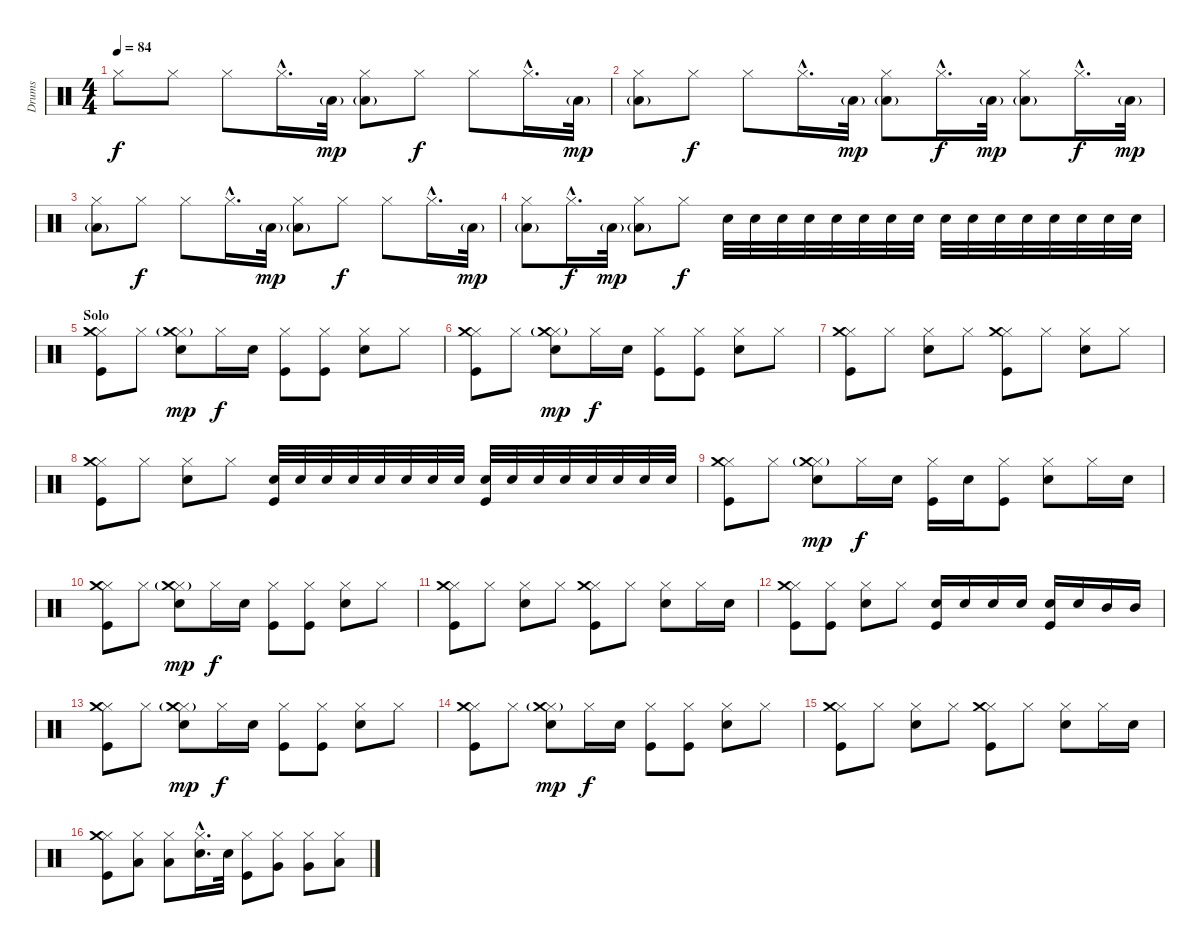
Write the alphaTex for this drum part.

\track ("Drums" "Drums") {instrument percussion}
\staff {score}
\articulation defaults
\ts (4 4)
\tempo 84
\clef neutral
\ks c "Hi-Hat (closed)".8{dy f} "Hi-Hat (closed)".8 "Hi-Hat (closed)".8 "Hi-Hat (closed)"{hac}.16{d} "Low Floor Tom (hit)"{g}.32{dy mp}
("Hi-Hat (closed)" "Low Floor Tom (hit)"{g}).8 "Hi-Hat (closed)".8{dy f} "Hi-Hat (closed)".8 "Hi-Hat (closed)"{hac}.16{d} "Low Floor Tom (hit)"{g}.32{dy mp} |
("Hi-Hat (closed)" "Low Floor Tom (hit)"{g}).8 "Hi-Hat (closed)".8{dy f} "Hi-Hat (closed)".8 "Hi-Hat (closed)"{hac}.16{d} "Low Floor Tom (hit)"{g}.32{dy mp} ("Hi-Hat (closed)" "Low Floor Tom (hit)"{g}).8 "Hi-Hat (closed)"{hac}.16{d dy f} "Low Floor Tom (hit)"{g}.32{dy mp} ("Hi-Hat (closed)" "Low Floor Tom (hit)"{g}).8 "Hi-Hat (closed)"{hac}.16{d dy f} "Low Floor Tom (hit)"{g}.32{dy mp} |
("Hi-Hat (closed)" "Low Floor Tom (hit)"{g}).8 "Hi-Hat (closed)".8{dy f} "Hi-Hat (closed)".8 "Hi-Hat (closed)"{hac}.16{d} "Low Floor Tom (hit)"{g}.32{dy mp} ("Hi-Hat (closed)" "Low Floor Tom (hit)"{g}).8 "Hi-Hat (closed)".8{dy f} "Hi-Hat (closed)".8 "Hi-Hat (closed)"{hac}.16{d} "Low Floor Tom (hit)"{g}.32{dy mp} |
("Hi-Hat (closed)" "Low Floor Tom (hit)"{g}).8 "Hi-Hat (closed)"{hac}.16{d dy f} "Low Floor Tom (hit)"{g}.32{dy mp} ("Hi-Hat (closed)" "Low Floor Tom (hit)"{g}).8 "Hi-Hat (closed)".8{dy f} "Snare (hit) 2".32 "Snare (hit) 2".32 "Snare (hit) 2".32 "Snare (hit) 2".32 "Snare (hit) 2".32 "Snare (hit) 2".32 "Snare (hit) 2".32 "Snare (hit) 2".32 "Snare (hit) 2".32 "Snare (hit) 2".32 "Snare (hit) 2".32 "Snare (hit) 2".32 "Snare (hit) 2".32 "Snare (hit) 2".32 "Snare (hit) 2".32 "Snare (hit) 2".32 |
\section ("" "Solo")
("Hi-Hat (closed)" "Crash medium (hit)" "Kick (hit)").8 "Hi-Hat (closed)".8 ("Hi-Hat (closed)" "Crash medium (hit)"{g} "Snare (hit) 2").8{dy mp} "Hi-Hat (closed)".16{dy f} "Snare (hit) 2".16 ("Hi-Hat (closed)" "Kick (hit)").8 ("Hi-Hat (closed)" "Kick (hit)").8 ("Hi-Hat (closed)" "Snare (hit) 2").8 "Hi-Hat (closed)".8 |
("Hi-Hat (closed)" "Crash medium (hit)" "Kick (hit)").8 "Hi-Hat (closed)".8 ("Hi-Hat (closed)" "Crash medium (hit)"{g} "Snare (hit) 2").8{dy mp} "Hi-Hat (closed)".16{dy f} "Snare (hit) 2".16 ("Hi-Hat (closed)" "Kick (hit)").8 ("Hi-Hat (closed)" "Kick (hit)").8 ("Hi-Hat (closed)" "Snare (hit) 2").8 "Hi-Hat (closed)".8 |
("Hi-Hat (closed)" "Crash medium (hit)" "Kick (hit)").8 "Hi-Hat (closed)".8 ("Hi-Hat (closed)" "Snare (hit) 2").8 "Hi-Hat (closed)".8 ("Hi-Hat (closed)" "Crash medium (hit)" "Kick (hit)").8 "Hi-Hat (closed)".8 ("Hi-Hat (closed)" "Snare (hit) 2").8 "Hi-Hat (closed)".8 |
("Hi-Hat (closed)" "Crash medium (hit)" "Kick (hit)").8 "Hi-Hat (closed)".8 ("Hi-Hat (closed)" "Snare (hit) 2").8 "Hi-Hat (closed)".8 ("Snare (hit) 2" "Kick (hit)").32 "Snare (hit) 2".32 "Snare (hit) 2".32 "Snare (hit) 2".32 "Snare (hit) 2".32 "Snare (hit) 2".32 "Snare (hit) 2".32 "Snare (hit) 2".32 ("Snare (hit) 2" "Kick (hit)").32 "Snare (hit) 2".32 "Snare (hit) 2".32 "Snare (hit) 2".32 "Snare (hit) 2".32 "Snare (hit) 2".32 "Snare (hit) 2".32 "Snare (hit) 2".32 |
("Hi-Hat (closed)" "Crash medium (hit)" "Kick (hit)").8 "Hi-Hat (closed)".8 ("Hi-Hat (closed)" "Crash medium (hit)"{g} "Snare (hit) 2").8{dy mp} "Hi-Hat (closed)".16{dy f} "Snare (hit) 2".16 ("Hi-Hat (closed)" "Kick (hit)").16 "Snare (hit) 2".16 ("Hi-Hat (closed)" "Kick (hit)").8 ("Hi-Hat (closed)" "Snare (hit) 2").8 "Hi-Hat (closed)".16 "Snare (hit) 2".16 |
("Hi-Hat (closed)" "Crash medium (hit)" "Kick (hit)").8 "Hi-Hat (closed)".8 ("Hi-Hat (closed)" "Crash medium (hit)"{g} "Snare (hit) 2").8{dy mp} "Hi-Hat (closed)".16{dy f} "Snare (hit) 2".16 ("Hi-Hat (closed)" "Kick (hit)").8 ("Hi-Hat (closed)" "Kick (hit)").8 ("Hi-Hat (closed)" "Snare (hit) 2").8 "Hi-Hat (closed)".8 |
("Hi-Hat (closed)" "Crash medium (hit)" "Kick (hit)").8 "Hi-Hat (closed)".8 ("Hi-Hat (closed)" "Snare (hit) 2").8 "Hi-Hat (closed)".8 ("Hi-Hat (closed)" "Crash medium (hit)" "Kick (hit)").8 "Hi-Hat (closed)".8 ("Hi-Hat (closed)" "Snare (hit) 2").8 "Hi-Hat (closed)".16 "Snare (hit) 2".16 |
("Hi-Hat (closed)" "Crash medium (hit)" "Kick (hit)").8 ("Hi-Hat (closed)" "Kick (hit)").8 ("Hi-Hat (closed)" "Snare (hit) 2").8 "Hi-Hat (closed)".8 ("Snare (hit) 2" "Kick (hit)").16 "Snare (hit) 2".16 "Snare (hit) 2".16 "Snare (hit) 2".16 ("Snare (hit) 2" "Kick (hit)").16 "Snare (hit) 2".16 "Mid Tom (hit)".16 "Mid Tom (hit)".16 |
("Hi-Hat (closed)" "Crash medium (hit)" "Kick (hit)").8 "Hi-Hat (closed)".8 ("Hi-Hat (closed)" "Crash medium (hit)"{g} "Snare (hit) 2").8{dy mp} "Hi-Hat (closed)".16{dy f} "Snare (hit) 2".16 ("Hi-Hat (closed)" "Kick (hit)").8 ("Hi-Hat (closed)" "Kick (hit)").8 ("Hi-Hat (closed)" "Snare (hit) 2").8 "Hi-Hat (closed)".8 |
("Hi-Hat (closed)" "Crash medium (hit)" "Kick (hit)").8 "Hi-Hat (closed)".8 ("Hi-Hat (closed)" "Crash medium (hit)"{g} "Snare (hit) 2").8{dy mp} "Hi-Hat (closed)".16{dy f} "Snare (hit) 2".16 ("Hi-Hat (closed)" "Kick (hit)").8 ("Hi-Hat (closed)" "Kick (hit)").8 ("Hi-Hat (closed)" "Snare (hit) 2").8 "Hi-Hat (closed)".8 |
("Hi-Hat (closed)" "Crash medium (hit)" "Kick (hit)").8 "Hi-Hat (closed)".8 ("Hi-Hat (closed)" "Snare (hit) 2").8 "Hi-Hat (closed)".8 ("Hi-Hat (closed)" "Crash medium (hit)" "Kick (hit)").8 "Hi-Hat (closed)".8 ("Hi-Hat (closed)" "Snare (hit) 2").8 "Hi-Hat (closed)".16 "Snare (hit) 2".16 |
("Hi-Hat (closed)" "Crash medium (hit)" "Kick (hit)").8 ("Hi-Hat (closed)" "Low Tom (hit)").8 ("Hi-Hat (closed)" "Low Tom (hit)").8 ("Hi-Hat (closed)"{hac} "Snare (hit) 2"{hac}).16{d} "Snare (hit) 2".32 ("Hi-Hat (closed)" "Kick (hit)").8 ("Hi-Hat (closed)" "Very Low Tom (hit)").8 ("Hi-Hat (closed)" "Very Low Tom (hit)").8 ("Hi-Hat (closed)" "Low Floor Tom (hit)").8
